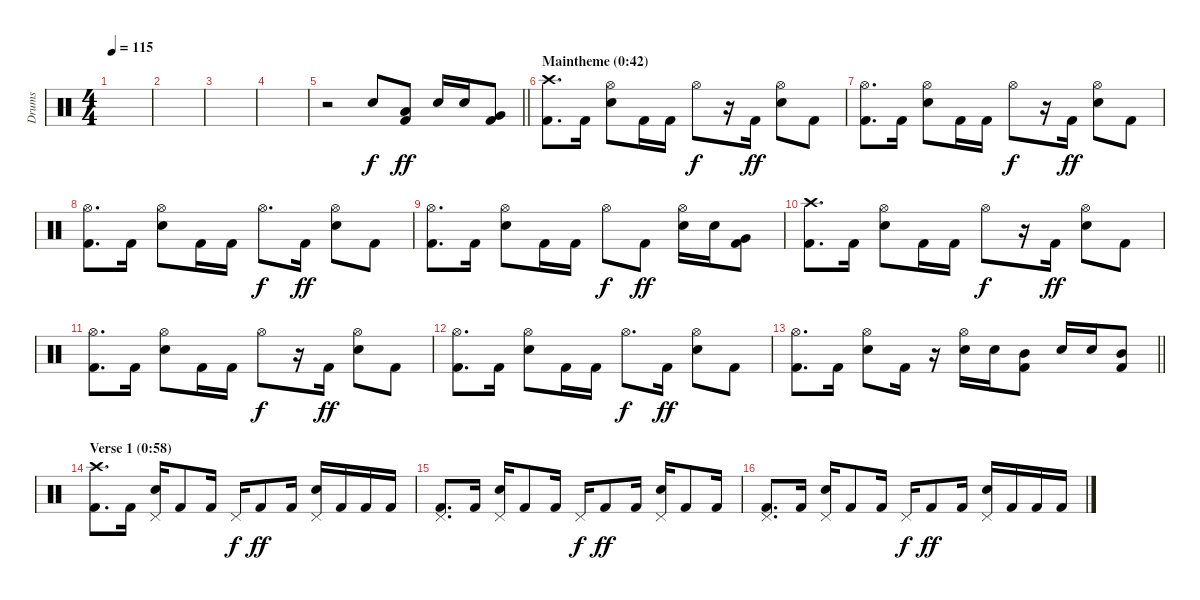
\track ("Drums" "Drums") {instrument percussion}
\staff {score}
\articulation defaults
\ts (4 4)
\tempo 115
\clef neutral
\ks c
|
|
|
|
\barLineRight lightlight
r.2 "Snare (hit) 2".8 ("Low Floor Tom (hit)" "Kick (hit) 2").8{dy ff} "Snare (hit) 2".16 "Snare (hit) 2".16 ("Very Low Tom (hit)" "Kick (hit) 2").8 |
\section ("" "Maintheme (0:42)")
("Crash high (hit)" "Kick (hit) 2").8{d} "Kick (hit) 2".16 ("Hi-Hat (open)" "Snare (hit) 2").8 "Kick (hit) 2".16 "Kick (hit) 2".16 "Hi-Hat (open)".8{dy f} r.16 "Kick (hit) 2".16{dy ff} ("Hi-Hat (open)" "Snare (hit) 2").8 "Kick (hit) 2".8 |
("Hi-Hat (open)" "Kick (hit) 2").8{d} "Kick (hit) 2".16 ("Hi-Hat (open)" "Snare (hit) 2").8 "Kick (hit) 2".16 "Kick (hit) 2".16 "Hi-Hat (open)".8{dy f} r.16 "Kick (hit) 2".16{dy ff} ("Hi-Hat (open)" "Snare (hit) 2").8 "Kick (hit) 2".8 |
("Hi-Hat (open)" "Kick (hit) 2").8{d} "Kick (hit) 2".16 ("Hi-Hat (open)" "Snare (hit) 2").8 "Kick (hit) 2".16 "Kick (hit) 2".16 "Hi-Hat (open)".8{d dy f} "Kick (hit) 2".16{dy ff} ("Hi-Hat (open)" "Snare (hit) 2").8 "Kick (hit) 2".8 |
("Hi-Hat (open)" "Kick (hit) 2").8{d} "Kick (hit) 2".16 ("Hi-Hat (open)" "Snare (hit) 2").8 "Kick (hit) 2".16 "Kick (hit) 2".16 "Hi-Hat (open)".8{dy f} "Kick (hit) 2".8{dy ff} ("Hi-Hat (open)" "Snare (hit) 2").16 "Snare (hit) 2".16 ("Very Low Tom (hit)" "Kick (hit) 2").8 |
("Crash high (hit)" "Kick (hit) 2").8{d} "Kick (hit) 2".16 ("Hi-Hat (open)" "Snare (hit) 2").8 "Kick (hit) 2".16 "Kick (hit) 2".16 "Hi-Hat (open)".8{dy f} r.16 "Kick (hit) 2".16{dy ff} ("Hi-Hat (open)" "Snare (hit) 2").8 "Kick (hit) 2".8 |
("Hi-Hat (open)" "Kick (hit) 2").8{d} "Kick (hit) 2".16 ("Hi-Hat (open)" "Snare (hit) 2").8 "Kick (hit) 2".16 "Kick (hit) 2".16 "Hi-Hat (open)".8{dy f} r.16 "Kick (hit) 2".16{dy ff} ("Hi-Hat (open)" "Snare (hit) 2").8 "Kick (hit) 2".8 |
("Hi-Hat (open)" "Kick (hit) 2").8{d} "Kick (hit) 2".16 ("Hi-Hat (open)" "Snare (hit) 2").8 "Kick (hit) 2".16 "Kick (hit) 2".16 "Hi-Hat (open)".8{d dy f} "Kick (hit) 2".16{dy ff} ("Hi-Hat (open)" "Snare (hit) 2").8 "Kick (hit) 2".8 |
\barLineRight lightlight
("Hi-Hat (open)" "Kick (hit) 2").8{d} "Kick (hit) 2".16 ("Hi-Hat (open)" "Snare (hit) 2").8 "Kick (hit) 2".16 r.16 ("Hi-Hat (open)" "Snare (hit) 2").16 "Snare (hit) 2".16 ("Mid Tom (hit)" "Kick (hit) 2").8 "Snare (hit) 2".16 "Snare (hit) 2".16 ("Mid Tom (hit)" "Kick (hit) 2").8 |
\section ("" "Verse 1 (0:58)")
("Crash high (hit)" "Kick (hit) 2").8{d} "Kick (hit) 2".16 ("Pedal Hi-Hat (hit)" "Snare (hit) 2").16 "Kick (hit) 2".8 "Kick (hit) 2".16 "Pedal Hi-Hat (hit)".16{dy f} "Kick (hit) 2".8{dy ff} "Kick (hit) 2".16 ("Pedal Hi-Hat (hit)" "Snare (hit) 2").16 "Kick (hit) 2".16 "Kick (hit) 2".16 "Kick (hit) 2".16 |
("Pedal Hi-Hat (hit)" "Kick (hit) 2").8{d} "Kick (hit) 2".16 ("Pedal Hi-Hat (hit)" "Snare (hit) 2").16 "Kick (hit) 2".8 "Kick (hit) 2".16 "Pedal Hi-Hat (hit)".16{dy f} "Kick (hit) 2".8{dy ff} "Kick (hit) 2".16 ("Pedal Hi-Hat (hit)" "Snare (hit) 2").16 "Kick (hit) 2".8 "Kick (hit) 2".16 |
("Pedal Hi-Hat (hit)" "Kick (hit) 2").8{d} "Kick (hit) 2".16 ("Pedal Hi-Hat (hit)" "Snare (hit) 2").16 "Kick (hit) 2".8 "Kick (hit) 2".16 "Pedal Hi-Hat (hit)".16{dy f} "Kick (hit) 2".8{dy ff} "Kick (hit) 2".16 ("Pedal Hi-Hat (hit)" "Snare (hit) 2").16 "Kick (hit) 2".16 "Kick (hit) 2".16 "Kick (hit) 2".16
